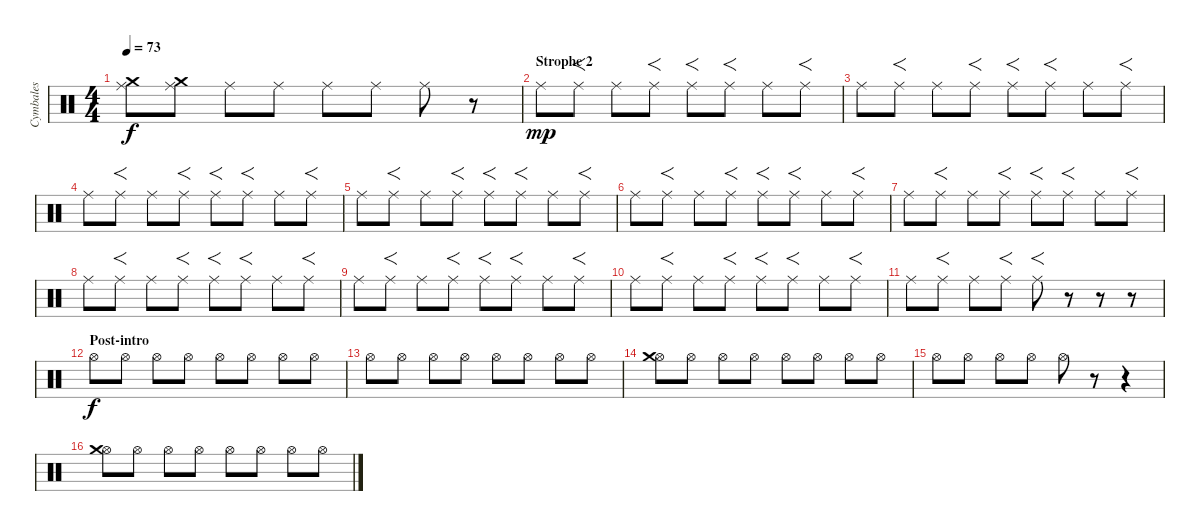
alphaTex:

\track ("Cymbales" "Cymbales") {instrument percussion}
\staff {score}
\articulation defaults
\ts (4 4)
\tempo 73
\clef neutral
\ks c
("Ride (middle)" "Crash medium (hit)").8{dy f} ("Ride (middle)" "Crash medium (hit)").8 "Ride (middle)".8 "Ride (middle)".8 "Ride (middle)".8 "Ride (middle)".8 "Ride (middle)".8 r.8 |
\section ("" "Strophe 2")
"Ride (middle)".8{dy mp} "Ride (middle)".8{f} "Ride (middle)".8 "Ride (middle)".8{f} "Ride (middle)".8{f} "Ride (middle)".8{f} "Ride (middle)".8 "Ride (middle)".8{f} |
"Ride (middle)".8 "Ride (middle)".8{f} "Ride (middle)".8 "Ride (middle)".8{f} "Ride (middle)".8{f} "Ride (middle)".8{f} "Ride (middle)".8 "Ride (middle)".8{f} |
"Ride (middle)".8 "Ride (middle)".8{f} "Ride (middle)".8 "Ride (middle)".8{f} "Ride (middle)".8{f} "Ride (middle)".8{f} "Ride (middle)".8 "Ride (middle)".8{f} |
"Ride (middle)".8 "Ride (middle)".8{f} "Ride (middle)".8 "Ride (middle)".8{f} "Ride (middle)".8{f} "Ride (middle)".8{f} "Ride (middle)".8 "Ride (middle)".8{f} |
"Ride (middle)".8 "Ride (middle)".8{f} "Ride (middle)".8 "Ride (middle)".8{f} "Ride (middle)".8{f} "Ride (middle)".8{f} "Ride (middle)".8 "Ride (middle)".8{f} |
"Ride (middle)".8 "Ride (middle)".8{f} "Ride (middle)".8 "Ride (middle)".8{f} "Ride (middle)".8{f} "Ride (middle)".8{f} "Ride (middle)".8 "Ride (middle)".8{f} |
"Ride (middle)".8 "Ride (middle)".8{f} "Ride (middle)".8 "Ride (middle)".8{f} "Ride (middle)".8{f} "Ride (middle)".8{f} "Ride (middle)".8 "Ride (middle)".8{f} |
"Ride (middle)".8 "Ride (middle)".8{f} "Ride (middle)".8 "Ride (middle)".8{f} "Ride (middle)".8{f} "Ride (middle)".8{f} "Ride (middle)".8 "Ride (middle)".8{f} |
"Ride (middle)".8 "Ride (middle)".8{f} "Ride (middle)".8 "Ride (middle)".8{f} "Ride (middle)".8{f} "Ride (middle)".8{f} "Ride (middle)".8 "Ride (middle)".8{f} |
"Ride (middle)".8 "Ride (middle)".8{f} "Ride (middle)".8 "Ride (middle)".8{f} "Ride (middle)".8{f} r.8 r.8 r.8 |
\section ("" "Post-intro")
"Hi-Hat (open)".8{dy f} "Hi-Hat (open)".8 "Hi-Hat (open)".8 "Hi-Hat (open)".8 "Hi-Hat (open)".8 "Hi-Hat (open)".8 "Hi-Hat (open)".8 "Hi-Hat (open)".8 |
"Hi-Hat (open)".8 "Hi-Hat (open)".8 "Hi-Hat (open)".8 "Hi-Hat (open)".8 "Hi-Hat (open)".8 "Hi-Hat (open)".8 "Hi-Hat (open)".8 "Hi-Hat (open)".8 |
("Hi-Hat (open)" "Crash medium (hit)").8 "Hi-Hat (open)".8 "Hi-Hat (open)".8 "Hi-Hat (open)".8 "Hi-Hat (open)".8 "Hi-Hat (open)".8 "Hi-Hat (open)".8 "Hi-Hat (open)".8 |
"Hi-Hat (open)".8 "Hi-Hat (open)".8 "Hi-Hat (open)".8 "Hi-Hat (open)".8 "Hi-Hat (open)".8 r.8 r.4 |
("Hi-Hat (open)" "Crash medium (hit)").8 "Hi-Hat (open)".8 "Hi-Hat (open)".8 "Hi-Hat (open)".8 "Hi-Hat (open)".8 "Hi-Hat (open)".8 "Hi-Hat (open)".8 "Hi-Hat (open)".8
